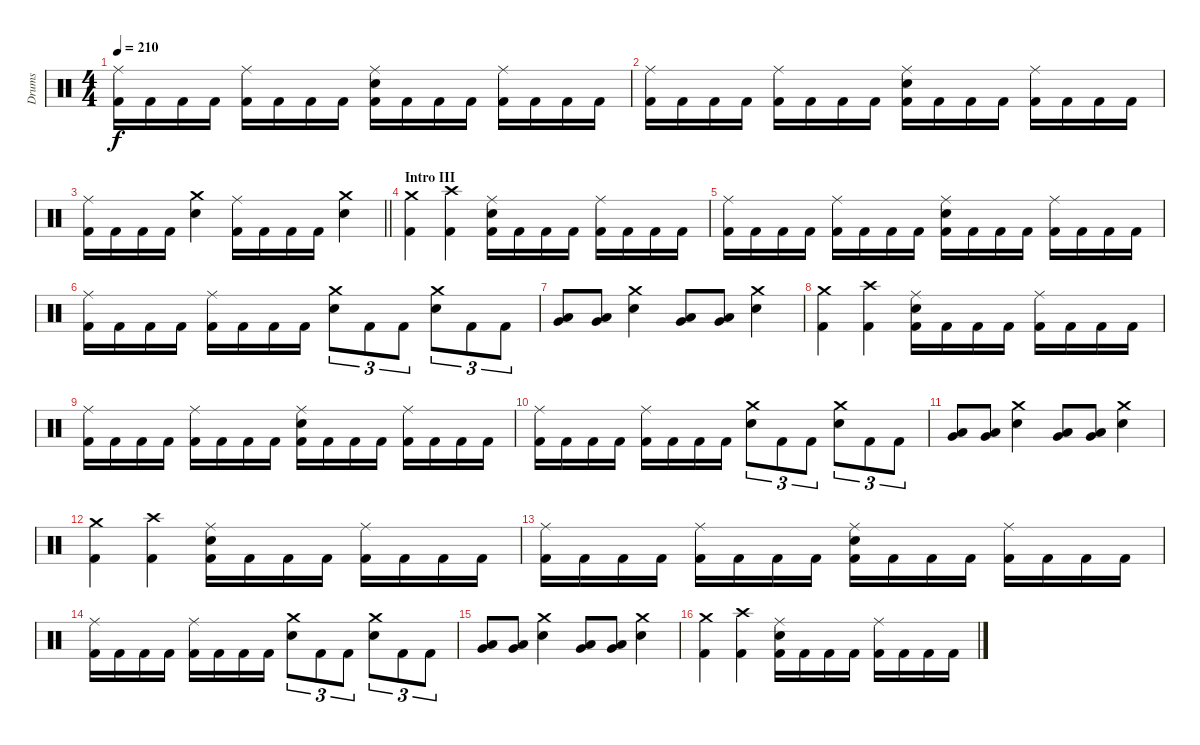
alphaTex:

\track ("Drums" "Drums") {instrument percussion}
\staff {score}
\articulation defaults
\ts (4 4)
\tempo 210
\clef neutral
\ks c
("Ride (middle)" "Kick (hit) 2").16{dy f} "Kick (hit) 2".16 "Kick (hit) 2".16 "Kick (hit) 2".16 ("Ride (middle)" "Kick (hit) 2").16 "Kick (hit) 2".16 "Kick (hit) 2".16 "Kick (hit) 2".16 ("Ride (middle)" "Snare (hit) 2" "Kick (hit) 2").16 "Kick (hit) 2".16 "Kick (hit) 2".16 "Kick (hit) 2".16 ("Ride (middle)" "Kick (hit) 2").16 "Kick (hit) 2".16 "Kick (hit) 2".16 "Kick (hit) 2".16 |
("Ride (middle)" "Kick (hit) 2").16 "Kick (hit) 2".16 "Kick (hit) 2".16 "Kick (hit) 2".16 ("Ride (middle)" "Kick (hit) 2").16 "Kick (hit) 2".16 "Kick (hit) 2".16 "Kick (hit) 2".16 ("Ride (middle)" "Snare (hit) 2" "Kick (hit) 2").16 "Kick (hit) 2".16 "Kick (hit) 2".16 "Kick (hit) 2".16 ("Ride (middle)" "Kick (hit) 2").16 "Kick (hit) 2".16 "Kick (hit) 2".16 "Kick (hit) 2".16 |
\barLineRight lightlight
("Ride (middle)" "Kick (hit) 2").16 "Kick (hit) 2".16 "Kick (hit) 2".16 "Kick (hit) 2".16 ("Crash medium (hit)" "Snare (hit) 2").4 ("Ride (middle)" "Kick (hit) 2").16 "Kick (hit) 2".16 "Kick (hit) 2".16 "Kick (hit) 2".16 ("Crash medium (hit)" "Snare (hit) 2").4 |
\section ("" "Intro III")
("Crash medium (hit)" "Kick (hit) 2").4 ("Crash high (hit)" "Kick (hit) 2").4 ("Ride (middle)" "Snare (hit) 2" "Kick (hit) 2").16 "Kick (hit) 2".16 "Kick (hit) 2".16 "Kick (hit) 2".16 ("Ride (middle)" "Kick (hit) 2").16 "Kick (hit) 2".16 "Kick (hit) 2".16 "Kick (hit) 2".16 |
("Ride (middle)" "Kick (hit) 2").16 "Kick (hit) 2".16 "Kick (hit) 2".16 "Kick (hit) 2".16 ("Ride (middle)" "Kick (hit) 2").16 "Kick (hit) 2".16 "Kick (hit) 2".16 "Kick (hit) 2".16 ("Ride (middle)" "Snare (hit) 2" "Kick (hit) 2").16 "Kick (hit) 2".16 "Kick (hit) 2".16 "Kick (hit) 2".16 ("Ride (middle)" "Kick (hit) 2").16 "Kick (hit) 2".16 "Kick (hit) 2".16 "Kick (hit) 2".16 |
("Ride (middle)" "Kick (hit) 2").16 "Kick (hit) 2".16 "Kick (hit) 2".16 "Kick (hit) 2".16 ("Ride (middle)" "Kick (hit) 2").16 "Kick (hit) 2".16 "Kick (hit) 2".16 "Kick (hit) 2".16 ("Crash medium (hit)" "Snare (hit) 2").8{tu (3 2)} "Kick (hit) 2".8{tu (3 2)} "Kick (hit) 2".8{tu (3 2)} ("Crash medium (hit)" "Snare (hit) 2").8{tu (3 2)} "Kick (hit) 2".8{tu (3 2)} "Kick (hit) 2".8{tu (3 2)} |
("Very Low Tom (hit)" "Low Tom (hit)").8 ("Very Low Tom (hit)" "Low Tom (hit)").8 ("Crash medium (hit)" "Snare (hit) 2").4 ("Very Low Tom (hit)" "Low Tom (hit)").8 ("Very Low Tom (hit)" "Low Tom (hit)").8 ("Crash medium (hit)" "Snare (hit) 2").4 |
("Crash medium (hit)" "Kick (hit) 2").4 ("Crash high (hit)" "Kick (hit) 2").4 ("Ride (middle)" "Snare (hit) 2" "Kick (hit) 2").16 "Kick (hit) 2".16 "Kick (hit) 2".16 "Kick (hit) 2".16 ("Ride (middle)" "Kick (hit) 2").16 "Kick (hit) 2".16 "Kick (hit) 2".16 "Kick (hit) 2".16 |
("Ride (middle)" "Kick (hit) 2").16 "Kick (hit) 2".16 "Kick (hit) 2".16 "Kick (hit) 2".16 ("Ride (middle)" "Kick (hit) 2").16 "Kick (hit) 2".16 "Kick (hit) 2".16 "Kick (hit) 2".16 ("Ride (middle)" "Snare (hit) 2" "Kick (hit) 2").16 "Kick (hit) 2".16 "Kick (hit) 2".16 "Kick (hit) 2".16 ("Ride (middle)" "Kick (hit) 2").16 "Kick (hit) 2".16 "Kick (hit) 2".16 "Kick (hit) 2".16 |
("Ride (middle)" "Kick (hit) 2").16 "Kick (hit) 2".16 "Kick (hit) 2".16 "Kick (hit) 2".16 ("Ride (middle)" "Kick (hit) 2").16 "Kick (hit) 2".16 "Kick (hit) 2".16 "Kick (hit) 2".16 ("Crash medium (hit)" "Snare (hit) 2").8{tu (3 2)} "Kick (hit) 2".8{tu (3 2)} "Kick (hit) 2".8{tu (3 2)} ("Crash medium (hit)" "Snare (hit) 2").8{tu (3 2)} "Kick (hit) 2".8{tu (3 2)} "Kick (hit) 2".8{tu (3 2)} |
("Very Low Tom (hit)" "Low Tom (hit)").8 ("Very Low Tom (hit)" "Low Tom (hit)").8 ("Crash medium (hit)" "Snare (hit) 2").4 ("Very Low Tom (hit)" "Low Tom (hit)").8 ("Very Low Tom (hit)" "Low Tom (hit)").8 ("Crash medium (hit)" "Snare (hit) 2").4 |
("Crash medium (hit)" "Kick (hit) 2").4 ("Crash high (hit)" "Kick (hit) 2").4 ("Ride (middle)" "Snare (hit) 2" "Kick (hit) 2").16 "Kick (hit) 2".16 "Kick (hit) 2".16 "Kick (hit) 2".16 ("Ride (middle)" "Kick (hit) 2").16 "Kick (hit) 2".16 "Kick (hit) 2".16 "Kick (hit) 2".16 |
("Ride (middle)" "Kick (hit) 2").16 "Kick (hit) 2".16 "Kick (hit) 2".16 "Kick (hit) 2".16 ("Ride (middle)" "Kick (hit) 2").16 "Kick (hit) 2".16 "Kick (hit) 2".16 "Kick (hit) 2".16 ("Ride (middle)" "Snare (hit) 2" "Kick (hit) 2").16 "Kick (hit) 2".16 "Kick (hit) 2".16 "Kick (hit) 2".16 ("Ride (middle)" "Kick (hit) 2").16 "Kick (hit) 2".16 "Kick (hit) 2".16 "Kick (hit) 2".16 |
("Ride (middle)" "Kick (hit) 2").16 "Kick (hit) 2".16 "Kick (hit) 2".16 "Kick (hit) 2".16 ("Ride (middle)" "Kick (hit) 2").16 "Kick (hit) 2".16 "Kick (hit) 2".16 "Kick (hit) 2".16 ("Crash medium (hit)" "Snare (hit) 2").8{tu (3 2)} "Kick (hit) 2".8{tu (3 2)} "Kick (hit) 2".8{tu (3 2)} ("Crash medium (hit)" "Snare (hit) 2").8{tu (3 2)} "Kick (hit) 2".8{tu (3 2)} "Kick (hit) 2".8{tu (3 2)} |
("Very Low Tom (hit)" "Low Tom (hit)").8 ("Very Low Tom (hit)" "Low Tom (hit)").8 ("Crash medium (hit)" "Snare (hit) 2").4 ("Very Low Tom (hit)" "Low Tom (hit)").8 ("Very Low Tom (hit)" "Low Tom (hit)").8 ("Crash medium (hit)" "Snare (hit) 2").4 |
("Crash medium (hit)" "Kick (hit) 2").4 ("Crash high (hit)" "Kick (hit) 2").4 ("Ride (middle)" "Snare (hit) 2" "Kick (hit) 2").16 "Kick (hit) 2".16 "Kick (hit) 2".16 "Kick (hit) 2".16 ("Ride (middle)" "Kick (hit) 2").16 "Kick (hit) 2".16 "Kick (hit) 2".16 "Kick (hit) 2".16
